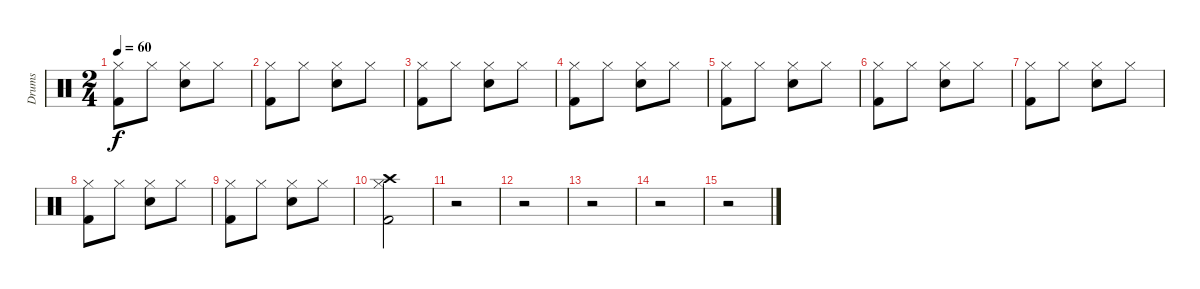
\track ("Drums" "Drums") {instrument percussion}
\staff {score}
\articulation defaults
\ts (2 4)
\tempo 60
\clef neutral
\ks c
("Hi-Hat (closed)" "Kick (hit) 2").8{dy f} "Hi-Hat (closed)".8 ("Hi-Hat (closed)" "Snare (hit) 2").8 "Hi-Hat (closed)".8 |
("Hi-Hat (closed)" "Kick (hit) 2").8 "Hi-Hat (closed)".8 ("Hi-Hat (closed)" "Snare (hit) 2").8 "Hi-Hat (closed)".8 |
("Hi-Hat (closed)" "Kick (hit) 2").8 "Hi-Hat (closed)".8 ("Hi-Hat (closed)" "Snare (hit) 2").8 "Hi-Hat (closed)".8 |
("Hi-Hat (closed)" "Kick (hit) 2").8 "Hi-Hat (closed)".8 ("Hi-Hat (closed)" "Snare (hit) 2").8 "Hi-Hat (closed)".8 |
("Hi-Hat (closed)" "Kick (hit) 2").8 "Hi-Hat (closed)".8 ("Hi-Hat (closed)" "Snare (hit) 2").8 "Hi-Hat (closed)".8 |
("Hi-Hat (closed)" "Kick (hit) 2").8 "Hi-Hat (closed)".8 ("Hi-Hat (closed)" "Snare (hit) 2").8 "Hi-Hat (closed)".8 |
("Hi-Hat (closed)" "Kick (hit) 2").8 "Hi-Hat (closed)".8 ("Hi-Hat (closed)" "Snare (hit) 2").8 "Hi-Hat (closed)".8 |
("Hi-Hat (closed)" "Kick (hit) 2").8 "Hi-Hat (closed)".8 ("Hi-Hat (closed)" "Snare (hit) 2").8 "Hi-Hat (closed)".8 |
("Hi-Hat (closed)" "Kick (hit) 2").8 "Hi-Hat (closed)".8 ("Hi-Hat (closed)" "Snare (hit) 2").8 "Hi-Hat (closed)".8 |
("Hi-Hat (closed)" "Crash high (hit)" "Kick (hit) 2").2 |
r.2 |
r.2 |
r.2 |
r.2 |
r.2
